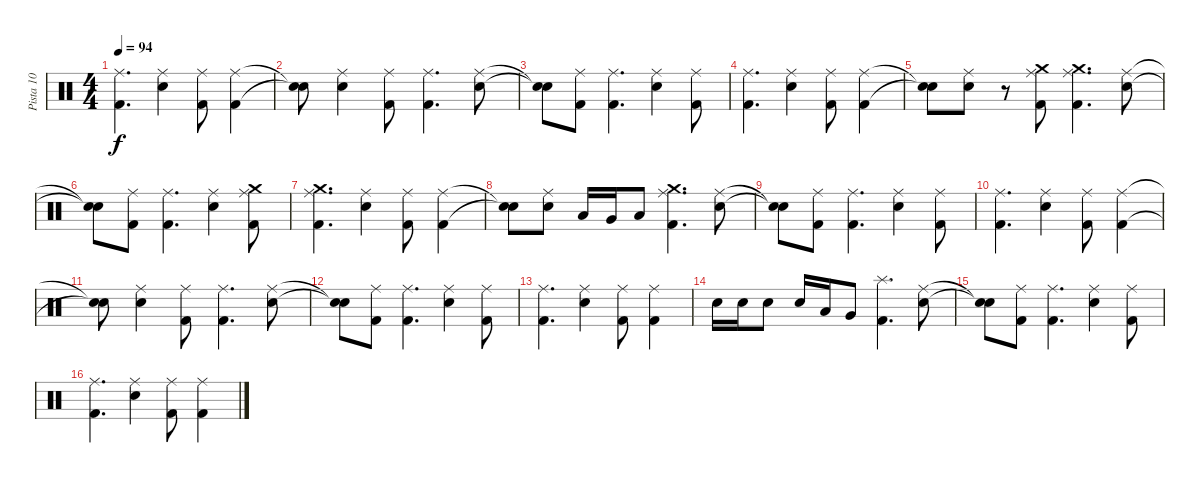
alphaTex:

\track ("Pista 10" "Pista 10") {instrument percussion}
\staff {score}
\articulation defaults
\ts (4 4)
\tempo 94
\clef neutral
\ks c
("Ride (middle)" "Kick (hit) 2").4{d dy f} ("Ride (middle)" "Snare (hit) 2").4 ("Ride (middle)" "Kick (hit) 2").8 ("Ride (middle)" "Kick (hit) 2").4 |
("Snare (hit)"{t} "Snare (hit)"{t}).8 ("Ride (middle)" "Snare (hit) 2").4 ("Ride (middle)" "Kick (hit) 2").8 ("Ride (middle)" "Kick (hit) 2").4{d} ("Ride (middle)" "Snare (hit) 2").8 |
("Snare (hit)"{t} "Snare (hit)"{t}).8 ("Ride (middle)" "Kick (hit) 2").8 ("Ride (middle)" "Kick (hit) 2").4{d} ("Ride (middle)" "Snare (hit) 2").4 ("Ride (middle)" "Kick (hit) 2").8 |
("Ride (middle)" "Kick (hit) 2").4{d} ("Ride (middle)" "Snare (hit) 2").4 ("Ride (middle)" "Kick (hit) 2").8 ("Ride (middle)" "Kick (hit) 2").4 |
("Snare (hit)"{t} "Snare (hit)"{t}).8 ("Ride (middle)" "Snare (hit) 2").8 r.8 ("Crash medium (hit)" "Ride (middle)" "Kick (hit) 2").8 ("Crash medium (hit)" "Ride (middle)" "Kick (hit) 2").4{d} ("Ride (middle)" "Snare (hit) 2").8 |
("Snare (hit)"{t} "Snare (hit)"{t}).8 ("Ride (middle)" "Kick (hit) 2").8 ("Ride (middle)" "Kick (hit) 2").4{d} ("Ride (middle)" "Snare (hit) 2").4 ("Crash medium (hit)" "Ride (middle)" "Kick (hit) 2").8 |
("Crash medium (hit)" "Ride (middle)" "Kick (hit) 2").4{d} ("Ride (middle)" "Snare (hit) 2").4 ("Ride (middle)" "Kick (hit) 2").8 ("Ride (middle)" "Kick (hit) 2").4 |
("Snare (hit)"{t} "Snare (hit)"{t}).8 ("Ride (middle)" "Snare (hit) 2").8 "Low Tom (hit)".16 "Very Low Tom (hit)".16 "Low Floor Tom (hit)".8 ("Crash medium (hit)" "Ride (middle)" "Kick (hit) 2").4{d} ("Ride (middle)" "Snare (hit) 2").8 |
("Snare (hit)"{t} "Snare (hit)"{t}).8 ("Ride (middle)" "Kick (hit) 2").8 ("Ride (middle)" "Kick (hit) 2").4{d} ("Ride (middle)" "Snare (hit) 2").4 ("Ride (middle)" "Kick (hit) 2").8 |
("Ride (middle)" "Kick (hit) 2").4{d} ("Ride (middle)" "Snare (hit) 2").4 ("Ride (middle)" "Kick (hit) 2").8 ("Ride (middle)" "Kick (hit) 2").4 |
("Snare (hit)"{t} "Snare (hit)"{t}).8 ("Ride (middle)" "Snare (hit) 2").4 ("Ride (middle)" "Kick (hit) 2").8 ("Ride (middle)" "Kick (hit) 2").4{d} ("Ride (middle)" "Snare (hit) 2").8 |
("Snare (hit)"{t} "Snare (hit)"{t}).8 ("Ride (middle)" "Kick (hit) 2").8 ("Ride (middle)" "Kick (hit) 2").4{d} ("Ride (middle)" "Snare (hit) 2").4 ("Ride (middle)" "Kick (hit) 2").8 |
("Ride (middle)" "Kick (hit) 2").4{d} ("Ride (middle)" "Snare (hit) 2").4 ("Ride (middle)" "Kick (hit) 2").8 ("Ride (middle)" "Kick (hit) 2").4 |
"Snare (hit) 2".16 "Snare (hit) 2".16 "Snare (hit) 2".8 "Snare (hit) 2".16 "Low Tom (hit)".16 "Very Low Tom (hit)".8 ("Splash (hit)" "Kick (hit) 2").4{d} ("Ride (middle)" "Snare (hit) 2").8 |
("Snare (hit)"{t} "Snare (hit)"{t}).8 ("Ride (middle)" "Kick (hit) 2").8 ("Ride (middle)" "Kick (hit) 2").4{d} ("Ride (middle)" "Snare (hit) 2").4 ("Ride (middle)" "Kick (hit) 2").8 |
("Ride (middle)" "Kick (hit) 2").4{d} ("Ride (middle)" "Snare (hit) 2").4 ("Ride (middle)" "Kick (hit) 2").8 ("Ride (middle)" "Kick (hit) 2").4
